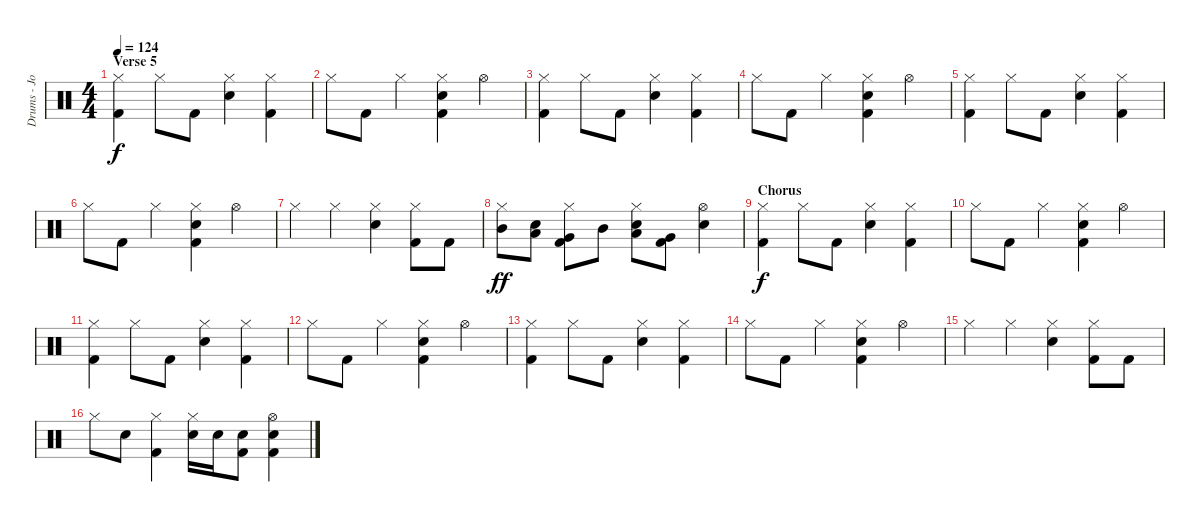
\track ("Drums - John Humphrey" "Drums - Jo") {instrument percussion}
\staff {score}
\articulation defaults
\ts (4 4)
\section ("" "Verse 5")
\tempo 124
\clef neutral
\ks c
("Hi-Hat (closed)" "Kick (hit) 2").4{dy f} "Hi-Hat (closed)".8 "Kick (hit) 2".8 ("Hi-Hat (closed)" "Electric Snare (hit)").4 ("Hi-Hat (closed)" "Kick (hit) 2").4 |
"Hi-Hat (closed)".8 "Kick (hit) 2".8 "Hi-Hat (closed)".4 ("Hi-Hat (closed)" "Electric Snare (hit)" "Kick (hit) 2").4 "Hi-Hat (open)".4 |
("Hi-Hat (closed)" "Kick (hit) 2").4 "Hi-Hat (closed)".8 "Kick (hit) 2".8 ("Hi-Hat (closed)" "Electric Snare (hit)").4 ("Hi-Hat (closed)" "Kick (hit) 2").4 |
"Hi-Hat (closed)".8 "Kick (hit) 2".8 "Hi-Hat (closed)".4 ("Hi-Hat (closed)" "Electric Snare (hit)" "Kick (hit) 2").4 "Hi-Hat (open)".4 |
("Hi-Hat (closed)" "Kick (hit) 2").4 "Hi-Hat (closed)".8 "Kick (hit) 2".8 ("Hi-Hat (closed)" "Electric Snare (hit)").4 ("Hi-Hat (closed)" "Kick (hit) 2").4 |
"Hi-Hat (closed)".8 "Kick (hit) 2".8 "Hi-Hat (closed)".4 ("Hi-Hat (closed)" "Electric Snare (hit)" "Kick (hit) 2").4 "Hi-Hat (open)".4 |
"Hi-Hat (closed)".4 "Hi-Hat (closed)".4 ("Hi-Hat (closed)" "Electric Snare (hit)").4 ("Hi-Hat (closed)" "Kick (hit) 2").8 "Kick (hit) 2".8 |
("Hi-Hat (closed)" "Mid Tom (hit)").8{dy ff} ("Low Tom (hit)" "Electric Snare (hit)").8 ("Hi-Hat (closed)" "Very Low Tom (hit)" "Kick (hit) 2").8 "Mid Tom (hit)".8 ("Hi-Hat (closed)" "Low Tom (hit)" "Electric Snare (hit)").8 ("Very Low Tom (hit)" "Kick (hit) 2").8 ("Hi-Hat (open)" "Electric Snare (hit)").4 |
\section ("" "Chorus")
("Hi-Hat (closed)" "Kick (hit) 2").4{dy f} "Hi-Hat (closed)".8 "Kick (hit) 2".8 ("Hi-Hat (closed)" "Electric Snare (hit)").4 ("Hi-Hat (closed)" "Kick (hit) 2").4 |
"Hi-Hat (closed)".8 "Kick (hit) 2".8 "Hi-Hat (closed)".4 ("Hi-Hat (closed)" "Electric Snare (hit)" "Kick (hit) 2").4 "Hi-Hat (open)".4 |
("Hi-Hat (closed)" "Kick (hit) 2").4 "Hi-Hat (closed)".8 "Kick (hit) 2".8 ("Hi-Hat (closed)" "Electric Snare (hit)").4 ("Hi-Hat (closed)" "Kick (hit) 2").4 |
"Hi-Hat (closed)".8 "Kick (hit) 2".8 "Hi-Hat (closed)".4 ("Hi-Hat (closed)" "Electric Snare (hit)" "Kick (hit) 2").4 "Hi-Hat (open)".4 |
("Hi-Hat (closed)" "Kick (hit) 2").4 "Hi-Hat (closed)".8 "Kick (hit) 2".8 ("Hi-Hat (closed)" "Electric Snare (hit)").4 ("Hi-Hat (closed)" "Kick (hit) 2").4 |
"Hi-Hat (closed)".8 "Kick (hit) 2".8 "Hi-Hat (closed)".4 ("Hi-Hat (closed)" "Electric Snare (hit)" "Kick (hit) 2").4 "Hi-Hat (open)".4 |
"Hi-Hat (closed)".4 "Hi-Hat (closed)".4 ("Hi-Hat (closed)" "Electric Snare (hit)").4 ("Hi-Hat (closed)" "Kick (hit) 2").8 "Kick (hit) 2".8 |
"Hi-Hat (closed)".8 "Electric Snare (hit)".8 ("Hi-Hat (closed)" "Kick (hit) 2").4 ("Hi-Hat (closed)" "Electric Snare (hit)").16 "Electric Snare (hit)".16 ("Electric Snare (hit)" "Kick (hit) 2").8 ("Hi-Hat (open)" "Electric Snare (hit)" "Kick (hit) 2").4
